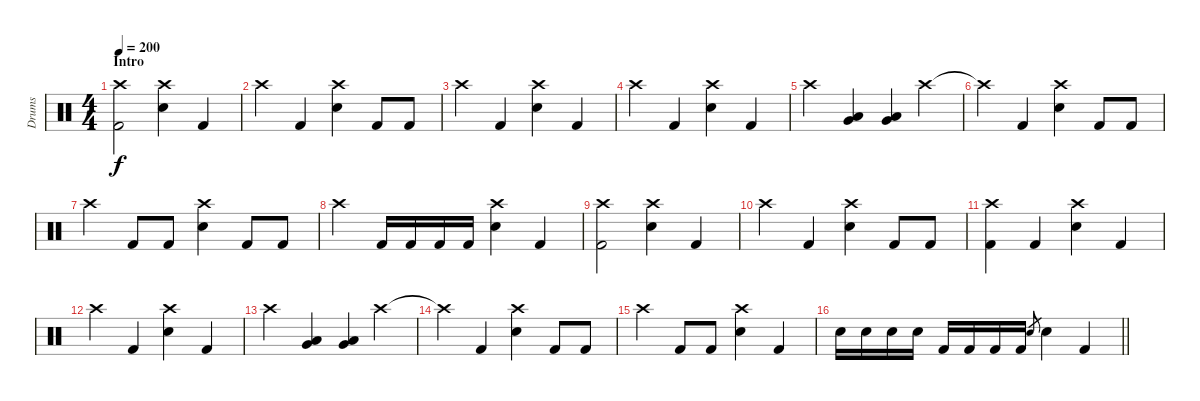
\track ("Drums" "Drums") {instrument percussion}
\staff {score}
\articulation defaults
\ts (4 4)
\section ("" "Intro")
\tempo 200
\clef neutral
\ks c
("Crash high (hit)" "Kick (hit) 2").2{dy f} ("Crash high (hit)" "Electric Snare (hit)").4 "Kick (hit) 2".4 |
"Crash high (hit)".4 "Kick (hit) 2".4 ("Crash high (hit)" "Electric Snare (hit)").4 "Kick (hit) 2".8 "Kick (hit) 2".8 |
"Crash high (hit)".4 "Kick (hit) 2".4 ("Crash high (hit)" "Electric Snare (hit)").4 "Kick (hit) 2".4 |
"Crash high (hit)".4 "Kick (hit) 2".4 ("Crash high (hit)" "Electric Snare (hit)").4 "Kick (hit) 2".4 |
"Crash high (hit)".4 ("Very Low Tom (hit)" "Low Floor Tom (hit)").4 ("Very Low Tom (hit)" "Low Floor Tom (hit)").4 "Crash high (hit)".4 |
"Crash high (hit)"{t}.4 "Kick (hit) 2".4 ("Crash high (hit)" "Electric Snare (hit)").4 "Kick (hit) 2".8 "Kick (hit) 2".8 |
"Crash high (hit)".4 "Kick (hit) 2".8 "Kick (hit) 2".8 ("Crash high (hit)" "Electric Snare (hit)").4 "Kick (hit) 2".8 "Kick (hit) 2".8 |
"Crash high (hit)".4 "Kick (hit) 2".16 "Kick (hit) 2".16 "Kick (hit) 2".16 "Kick (hit) 2".16 ("Crash high (hit)" "Electric Snare (hit)").4 "Kick (hit) 2".4 |
("Crash high (hit)" "Kick (hit) 2").2 ("Crash high (hit)" "Electric Snare (hit)").4 "Kick (hit) 2".4 |
"Crash high (hit)".4 "Kick (hit) 2".4 ("Crash high (hit)" "Electric Snare (hit)").4 "Kick (hit) 2".8 "Kick (hit) 2".8 |
("Crash high (hit)" "Kick (hit) 2").4 "Kick (hit) 2".4 ("Crash high (hit)" "Electric Snare (hit)").4 "Kick (hit) 2".4 |
"Crash high (hit)".4 "Kick (hit) 2".4 ("Crash high (hit)" "Electric Snare (hit)").4 "Kick (hit) 2".4 |
"Crash high (hit)".4 ("Very Low Tom (hit)" "Low Floor Tom (hit)").4 ("Very Low Tom (hit)" "Low Floor Tom (hit)").4 "Crash high (hit)".4 |
"Crash high (hit)"{t}.4 "Kick (hit) 2".4 ("Crash high (hit)" "Electric Snare (hit)").4 "Kick (hit) 2".8 "Kick (hit) 2".8 |
"Crash high (hit)".4 "Kick (hit) 2".8 "Kick (hit) 2".8 ("Crash high (hit)" "Electric Snare (hit)").4 "Kick (hit) 2".4 |
\barLineRight lightlight "Electric Snare (hit)".16 "Electric Snare (hit)".16 "Electric Snare (hit)".16 "Electric Snare (hit)".16 "Kick (hit) 2".16 "Kick (hit) 2".16 "Kick (hit) 2".16 "Kick (hit) 2".16 "Electric Snare (hit)".8{gr} "Electric Snare (hit)".4 "Kick (hit) 2".4
